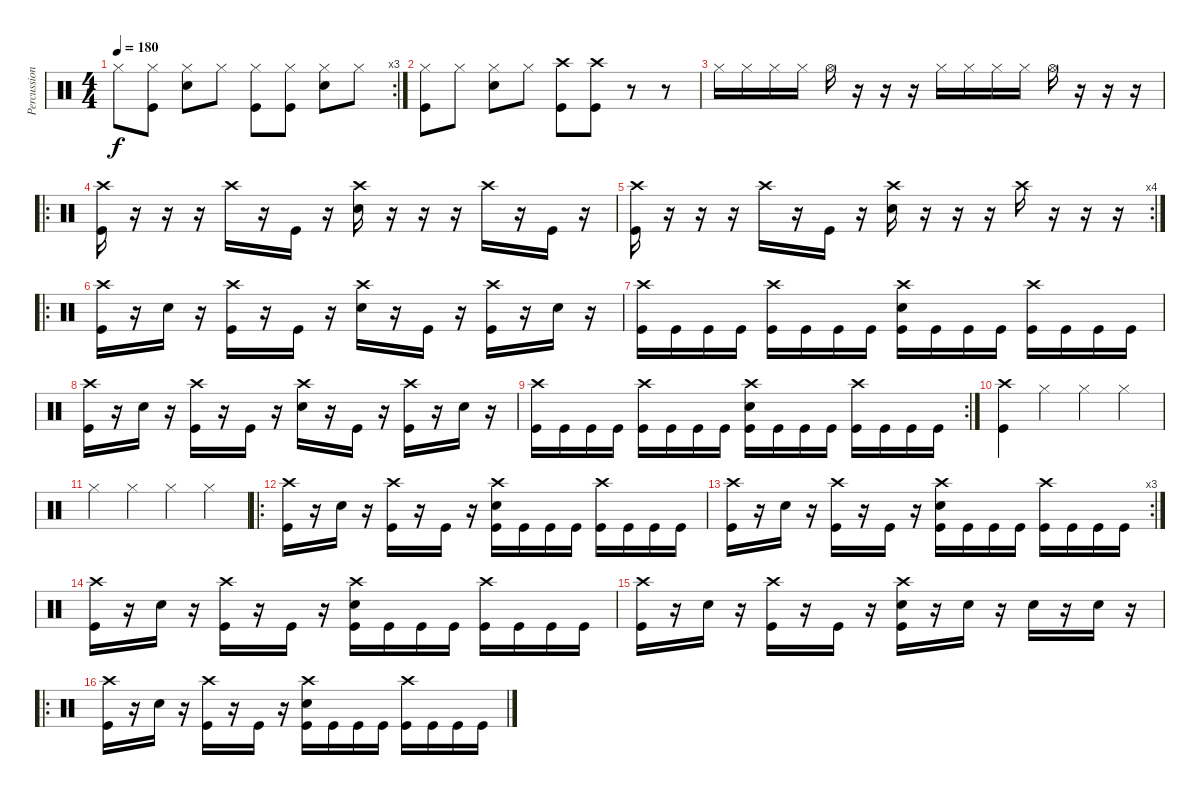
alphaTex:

\track ("Percussion" "Percussion") {instrument percussion}
\staff {score}
\articulation defaults
\rc 3
\ts (4 4)
\tempo 180
\clef neutral
\ks c "Hi-Hat (closed)".8{dy f}
("Hi-Hat (closed)" "Kick (hit)").8 ("Hi-Hat (closed)" "Electric Snare (hit)").8 "Hi-Hat (closed)".8 ("Hi-Hat (closed)" "Kick (hit)").8 ("Hi-Hat (closed)" "Kick (hit)").8 ("Hi-Hat (closed)" "Electric Snare (hit)").8 "Hi-Hat (closed)".8 |
("Hi-Hat (closed)" "Kick (hit)").8 "Hi-Hat (closed)".8 ("Hi-Hat (closed)" "Electric Snare (hit)").8 "Hi-Hat (closed)".8 ("Crash high (hit)" "Kick (hit)").8 ("Crash high (hit)" "Kick (hit)").8 r.8 r.8 |
"Hi-Hat (closed)".16 "Hi-Hat (closed)".16 "Hi-Hat (closed)".16 "Hi-Hat (closed)".16 "Hi-Hat (open)".16 r.16 r.16 r.16 "Hi-Hat (closed)".16 "Hi-Hat (closed)".16 "Hi-Hat (closed)".16 "Hi-Hat (closed)".16 "Hi-Hat (open)".16 r.16 r.16 r.16 |
\ro
("Crash high (hit)" "Kick (hit)").16 r.16 r.16 r.16 "Crash high (hit)".16 r.16 "Kick (hit)".16 r.16 ("Crash high (hit)" "Electric Snare (hit)").16 r.16 r.16 r.16 "Crash high (hit)".16 r.16 "Kick (hit)".16 r.16 |
\rc 4
("Crash high (hit)" "Kick (hit)").16 r.16 r.16 r.16 "Crash high (hit)".16 r.16 "Kick (hit)".16 r.16 ("Crash high (hit)" "Electric Snare (hit)").16 r.16 r.16 r.16 "Crash high (hit)".16 r.16 r.16 r.16 |
\ro
("Crash high (hit)" "Kick (hit)").16 r.16 "Electric Snare (hit)".16 r.16 ("Crash high (hit)" "Kick (hit)").16 r.16 "Kick (hit)".16 r.16 ("Crash high (hit)" "Electric Snare (hit)").16 r.16 "Kick (hit)".16 r.16 ("Crash high (hit)" "Kick (hit)").16 r.16 "Electric Snare (hit)".16 r.16 |
("Crash high (hit)" "Kick (hit)").16 "Kick (hit)".16 "Kick (hit)".16 "Kick (hit)".16 ("Crash high (hit)" "Kick (hit)").16 "Kick (hit)".16 "Kick (hit)".16 "Kick (hit)".16 ("Crash high (hit)" "Electric Snare (hit)" "Kick (hit)").16 "Kick (hit)".16 "Kick (hit)".16 "Kick (hit)".16 ("Crash high (hit)" "Kick (hit)").16 "Kick (hit)".16 "Kick (hit)".16 "Kick (hit)".16 |
("Crash high (hit)" "Kick (hit)").16 r.16 "Electric Snare (hit)".16 r.16 ("Crash high (hit)" "Kick (hit)").16 r.16 "Kick (hit)".16 r.16 ("Crash high (hit)" "Electric Snare (hit)").16 r.16 "Kick (hit)".16 r.16 ("Crash high (hit)" "Kick (hit)").16 r.16 "Electric Snare (hit)".16 r.16 |
\rc 2
("Crash high (hit)" "Kick (hit)").16 "Kick (hit)".16 "Kick (hit)".16 "Kick (hit)".16 ("Crash high (hit)" "Kick (hit)").16 "Kick (hit)".16 "Kick (hit)".16 "Kick (hit)".16 ("Crash high (hit)" "Electric Snare (hit)" "Kick (hit)").16 "Kick (hit)".16 "Kick (hit)".16 "Kick (hit)".16 ("Crash high (hit)" "Kick (hit)").16 "Kick (hit)".16 "Kick (hit)".16 "Kick (hit)".16 |
("Crash high (hit)" "Kick (hit)").4 "Hi-Hat (closed)".4 "Hi-Hat (closed)".4 "Hi-Hat (closed)".4 |
"Hi-Hat (closed)".4 "Hi-Hat (closed)".4 "Hi-Hat (closed)".4 "Hi-Hat (closed)".4 |
\ro
("Crash high (hit)" "Kick (hit)").16 r.16 "Electric Snare (hit)".16 r.16 ("Crash high (hit)" "Kick (hit)").16 r.16 "Kick (hit)".16 r.16 ("Crash high (hit)" "Electric Snare (hit)" "Kick (hit)").16 "Kick (hit)".16 "Kick (hit)".16 "Kick (hit)".16 ("Crash high (hit)" "Kick (hit)").16 "Kick (hit)".16 "Kick (hit)".16 "Kick (hit)".16 |
\rc 3
("Crash high (hit)" "Kick (hit)").16 r.16 "Electric Snare (hit)".16 r.16 ("Crash high (hit)" "Kick (hit)").16 r.16 "Kick (hit)".16 r.16 ("Crash high (hit)" "Electric Snare (hit)" "Kick (hit)").16 "Kick (hit)".16 "Kick (hit)".16 "Kick (hit)".16 ("Crash high (hit)" "Kick (hit)").16 "Kick (hit)".16 "Kick (hit)".16 "Kick (hit)".16 |
("Crash high (hit)" "Kick (hit)").16 r.16 "Electric Snare (hit)".16 r.16 ("Crash high (hit)" "Kick (hit)").16 r.16 "Kick (hit)".16 r.16 ("Crash high (hit)" "Electric Snare (hit)" "Kick (hit)").16 "Kick (hit)".16 "Kick (hit)".16 "Kick (hit)".16 ("Crash high (hit)" "Kick (hit)").16 "Kick (hit)".16 "Kick (hit)".16 "Kick (hit)".16 |
("Crash high (hit)" "Kick (hit)").16 r.16 "Electric Snare (hit)".16 r.16 ("Crash high (hit)" "Kick (hit)").16 r.16 "Kick (hit)".16 r.16 ("Crash high (hit)" "Electric Snare (hit)" "Kick (hit)").16 r.16 "Electric Snare (hit)".16 r.16 "Electric Snare (hit)".16 r.16 "Electric Snare (hit)".16 r.16 |
\ro
("Crash high (hit)" "Kick (hit)").16 r.16 "Electric Snare (hit)".16 r.16 ("Crash high (hit)" "Kick (hit)").16 r.16 "Kick (hit)".16 r.16 ("Crash high (hit)" "Electric Snare (hit)" "Kick (hit)").16 "Kick (hit)".16 "Kick (hit)".16 "Kick (hit)".16 ("Crash high (hit)" "Kick (hit)").16 "Kick (hit)".16 "Kick (hit)".16 "Kick (hit)".16
